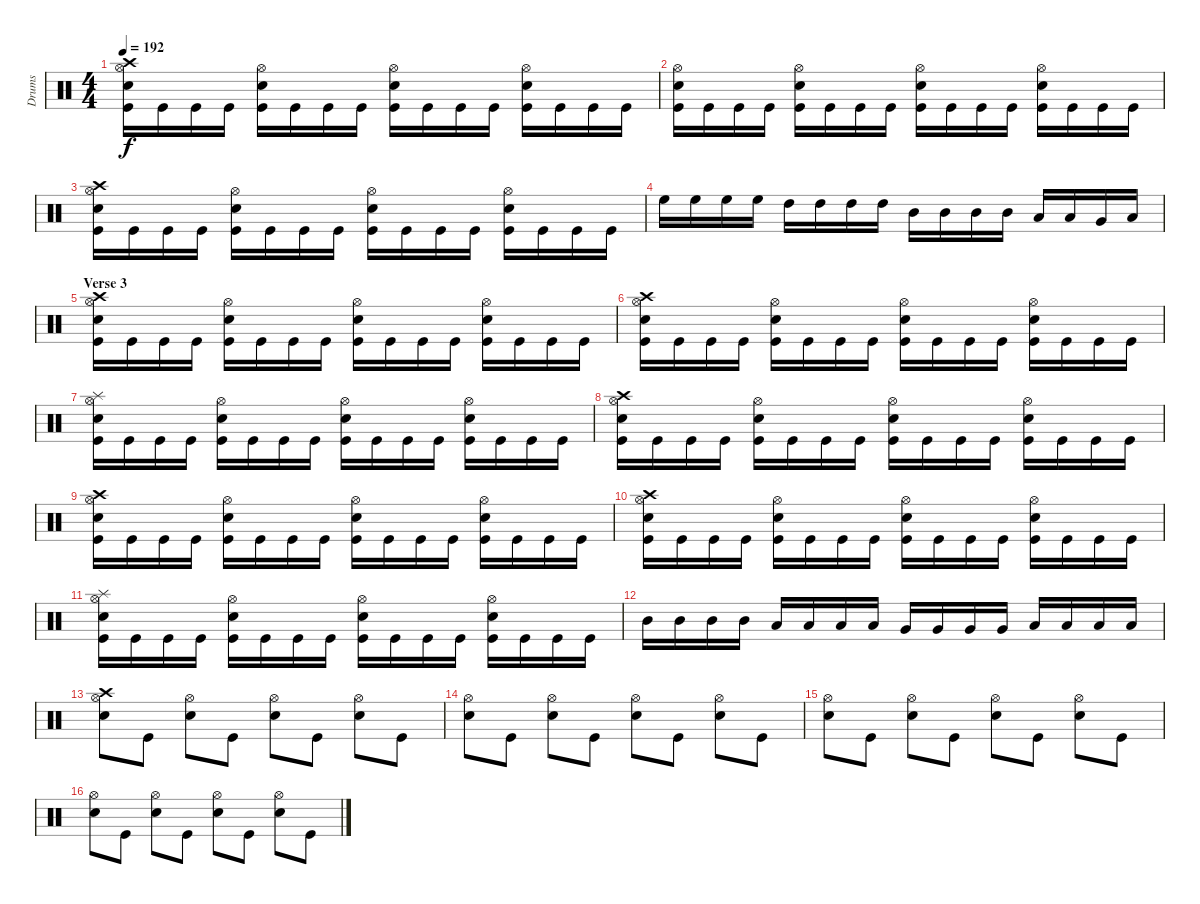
\track ("Drums" "Drums") {instrument percussion}
\staff {score}
\articulation defaults
\ts (4 4)
\tempo 192
\clef neutral
\ks c
("Crash high (hit)" "Hi-Hat (open)" "Snare (hit) 2" "Kick (hit)").16{dy f} "Kick (hit)".16 "Kick (hit)".16 "Kick (hit)".16 ("Hi-Hat (open)" "Snare (hit) 2" "Kick (hit)").16 "Kick (hit)".16 "Kick (hit)".16 "Kick (hit)".16 ("Hi-Hat (open)" "Snare (hit) 2" "Kick (hit)").16 "Kick (hit)".16 "Kick (hit)".16 "Kick (hit)".16 ("Hi-Hat (open)" "Snare (hit) 2" "Kick (hit)").16 "Kick (hit)".16 "Kick (hit)".16 "Kick (hit)".16 |
("Hi-Hat (open)" "Snare (hit) 2" "Kick (hit)").16 "Kick (hit)".16 "Kick (hit)".16 "Kick (hit)".16 ("Hi-Hat (open)" "Snare (hit) 2" "Kick (hit)").16 "Kick (hit)".16 "Kick (hit)".16 "Kick (hit)".16 ("Hi-Hat (open)" "Snare (hit) 2" "Kick (hit)").16 "Kick (hit)".16 "Kick (hit)".16 "Kick (hit)".16 ("Hi-Hat (open)" "Snare (hit) 2" "Kick (hit)").16 "Kick (hit)".16 "Kick (hit)".16 "Kick (hit)".16 |
("Crash high (hit)" "Hi-Hat (open)" "Snare (hit) 2" "Kick (hit)").16 "Kick (hit)".16 "Kick (hit)".16 "Kick (hit)".16 ("Hi-Hat (open)" "Snare (hit) 2" "Kick (hit)").16 "Kick (hit)".16 "Kick (hit)".16 "Kick (hit)".16 ("Hi-Hat (open)" "Snare (hit) 2" "Kick (hit)").16 "Kick (hit)".16 "Kick (hit)".16 "Kick (hit)".16 ("Hi-Hat (open)" "Snare (hit) 2" "Kick (hit)").16 "Kick (hit)".16 "Kick (hit)".16 "Kick (hit)".16 |
"High Floor Tom (hit)".16 "High Floor Tom (hit)".16 "High Floor Tom (hit)".16 "High Floor Tom (hit)".16 "High Tom (hit)".16 "High Tom (hit)".16 "High Tom (hit)".16 "High Tom (hit)".16 "Mid Tom (hit)".16 "Mid Tom (hit)".16 "Mid Tom (hit)".16 "Mid Tom (hit)".16 "Low Tom (hit)".16 "Low Tom (hit)".16 "Very Low Tom (hit)".16 "Low Floor Tom (hit)".16 |
\section ("" "Verse 3")
("Crash high (hit)" "Hi-Hat (open)" "Snare (hit) 2" "Kick (hit)").16 "Kick (hit)".16 "Kick (hit)".16 "Kick (hit)".16 ("Hi-Hat (open)" "Snare (hit) 2" "Kick (hit)").16 "Kick (hit)".16 "Kick (hit)".16 "Kick (hit)".16 ("Hi-Hat (open)" "Snare (hit) 2" "Kick (hit)").16 "Kick (hit)".16 "Kick (hit)".16 "Kick (hit)".16 ("Hi-Hat (open)" "Snare (hit) 2" "Kick (hit)").16 "Kick (hit)".16 "Kick (hit)".16 "Kick (hit)".16 |
("Crash high (hit)" "Hi-Hat (open)" "Snare (hit) 2" "Kick (hit)").16 "Kick (hit)".16 "Kick (hit)".16 "Kick (hit)".16 ("Hi-Hat (open)" "Snare (hit) 2" "Kick (hit)").16 "Kick (hit)".16 "Kick (hit)".16 "Kick (hit)".16 ("Hi-Hat (open)" "Snare (hit) 2" "Kick (hit)").16 "Kick (hit)".16 "Kick (hit)".16 "Kick (hit)".16 ("Hi-Hat (open)" "Snare (hit) 2" "Kick (hit)").16 "Kick (hit)".16 "Kick (hit)".16 "Kick (hit)".16 |
("Splash (hit)" "Hi-Hat (open)" "Snare (hit) 2" "Kick (hit)").16 "Kick (hit)".16 "Kick (hit)".16 "Kick (hit)".16 ("Hi-Hat (open)" "Snare (hit) 2" "Kick (hit)").16 "Kick (hit)".16 "Kick (hit)".16 "Kick (hit)".16 ("Hi-Hat (open)" "Snare (hit) 2" "Kick (hit)").16 "Kick (hit)".16 "Kick (hit)".16 "Kick (hit)".16 ("Hi-Hat (open)" "Snare (hit) 2" "Kick (hit)").16 "Kick (hit)".16 "Kick (hit)".16 "Kick (hit)".16 |
("Crash high (hit)" "Hi-Hat (open)" "Snare (hit) 2" "Kick (hit)").16 "Kick (hit)".16 "Kick (hit)".16 "Kick (hit)".16 ("Hi-Hat (open)" "Snare (hit) 2" "Kick (hit)").16 "Kick (hit)".16 "Kick (hit)".16 "Kick (hit)".16 ("Hi-Hat (open)" "Snare (hit) 2" "Kick (hit)").16 "Kick (hit)".16 "Kick (hit)".16 "Kick (hit)".16 ("Hi-Hat (open)" "Snare (hit) 2" "Kick (hit)").16 "Kick (hit)".16 "Kick (hit)".16 "Kick (hit)".16 |
("Crash high (hit)" "Hi-Hat (open)" "Snare (hit) 2" "Kick (hit)").16 "Kick (hit)".16 "Kick (hit)".16 "Kick (hit)".16 ("Hi-Hat (open)" "Snare (hit) 2" "Kick (hit)").16 "Kick (hit)".16 "Kick (hit)".16 "Kick (hit)".16 ("Hi-Hat (open)" "Snare (hit) 2" "Kick (hit)").16 "Kick (hit)".16 "Kick (hit)".16 "Kick (hit)".16 ("Hi-Hat (open)" "Snare (hit) 2" "Kick (hit)").16 "Kick (hit)".16 "Kick (hit)".16 "Kick (hit)".16 |
("Crash high (hit)" "Hi-Hat (open)" "Snare (hit) 2" "Kick (hit)").16 "Kick (hit)".16 "Kick (hit)".16 "Kick (hit)".16 ("Hi-Hat (open)" "Snare (hit) 2" "Kick (hit)").16 "Kick (hit)".16 "Kick (hit)".16 "Kick (hit)".16 ("Hi-Hat (open)" "Snare (hit) 2" "Kick (hit)").16 "Kick (hit)".16 "Kick (hit)".16 "Kick (hit)".16 ("Hi-Hat (open)" "Snare (hit) 2" "Kick (hit)").16 "Kick (hit)".16 "Kick (hit)".16 "Kick (hit)".16 |
("Splash (hit)" "Hi-Hat (open)" "Snare (hit) 2" "Kick (hit)").16 "Kick (hit)".16 "Kick (hit)".16 "Kick (hit)".16 ("Hi-Hat (open)" "Snare (hit) 2" "Kick (hit)").16 "Kick (hit)".16 "Kick (hit)".16 "Kick (hit)".16 ("Hi-Hat (open)" "Snare (hit) 2" "Kick (hit)").16 "Kick (hit)".16 "Kick (hit)".16 "Kick (hit)".16 ("Hi-Hat (open)" "Snare (hit) 2" "Kick (hit)").16 "Kick (hit)".16 "Kick (hit)".16 "Kick (hit)".16 |
"Mid Tom (hit)".16 "Mid Tom (hit)".16 "Mid Tom (hit)".16 "Mid Tom (hit)".16 "Low Tom (hit)".16 "Low Tom (hit)".16 "Low Tom (hit)".16 "Low Tom (hit)".16 "Very Low Tom (hit)".16 "Very Low Tom (hit)".16 "Very Low Tom (hit)".16 "Very Low Tom (hit)".16 "Low Floor Tom (hit)".16 "Low Floor Tom (hit)".16 "Low Floor Tom (hit)".16 "Low Floor Tom (hit)".16 |
("Crash high (hit)" "Hi-Hat (open)" "Snare (hit) 2").8 "Kick (hit)".8 ("Hi-Hat (open)" "Snare (hit) 2").8 "Kick (hit)".8 ("Hi-Hat (open)" "Snare (hit) 2").8 "Kick (hit)".8 ("Hi-Hat (open)" "Snare (hit) 2").8 "Kick (hit)".8 |
("Hi-Hat (open)" "Snare (hit) 2").8 "Kick (hit)".8 ("Hi-Hat (open)" "Snare (hit) 2").8 "Kick (hit)".8 ("Hi-Hat (open)" "Snare (hit) 2").8 "Kick (hit)".8 ("Hi-Hat (open)" "Snare (hit) 2").8 "Kick (hit)".8 |
("Hi-Hat (open)" "Snare (hit) 2").8 "Kick (hit)".8 ("Hi-Hat (open)" "Snare (hit) 2").8 "Kick (hit)".8 ("Hi-Hat (open)" "Snare (hit) 2").8 "Kick (hit)".8 ("Hi-Hat (open)" "Snare (hit) 2").8 "Kick (hit)".8 |
("Hi-Hat (open)" "Snare (hit) 2").8 "Kick (hit)".8 ("Hi-Hat (open)" "Snare (hit) 2").8 "Kick (hit)".8 ("Hi-Hat (open)" "Snare (hit) 2").8 "Kick (hit)".8 ("Hi-Hat (open)" "Snare (hit) 2").8 "Kick (hit)".8
